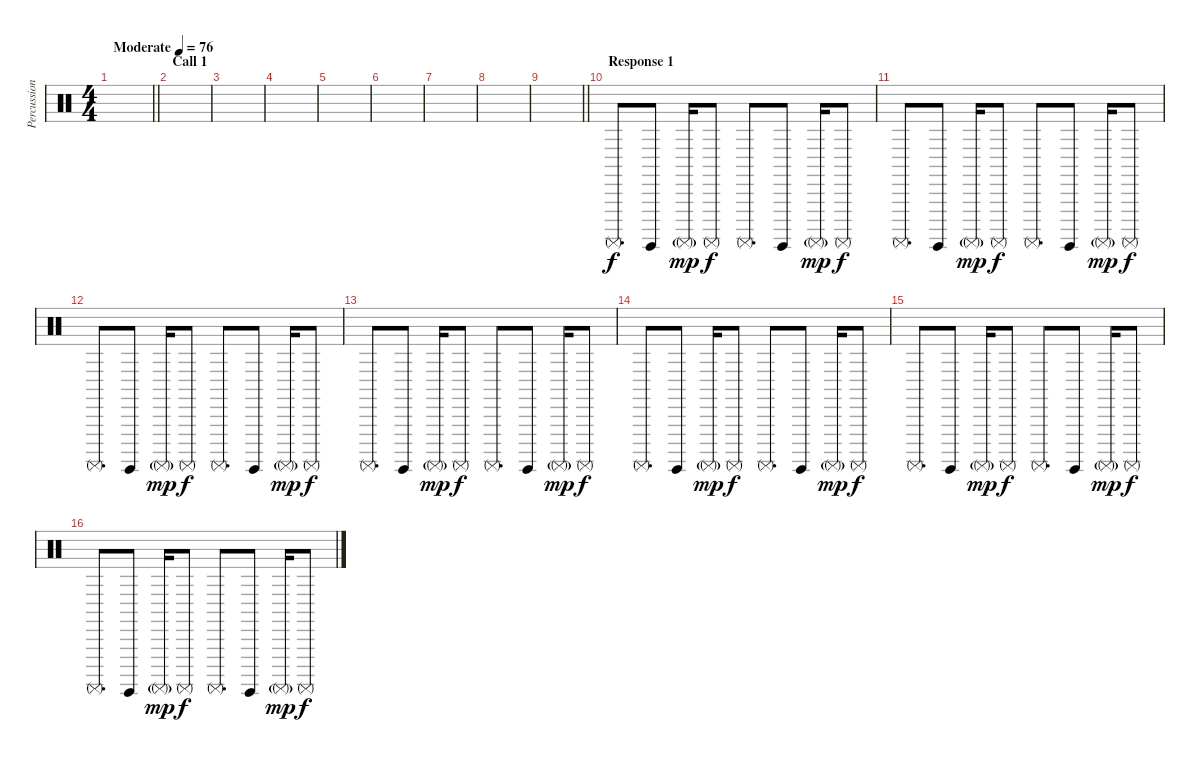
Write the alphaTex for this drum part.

\track ("Percussion" "Percussion") {instrument percussion}
\staff {score}
\articulation defaults
\ts (4 4)
\tempo (76 "Moderate")
\clef neutral
\barLineRight lightlight
\ks c
|
\section ("" "Call 1")
|
|
|
|
|
|
|
\barLineRight lightlight
|
\section ("" "Response 1")
"Surdo (mute)".8{d volume 8} "Surdo (hit)".8 "Surdo (mute)"{g}.16{dy mp} "Surdo (mute)".8{dy f} "Surdo (mute)".8{d} "Surdo (hit)".8 "Surdo (mute)"{g}.16{dy mp} "Surdo (mute)".8{dy f} |
"Surdo (mute)".8{d} "Surdo (hit)".8 "Surdo (mute)"{g}.16{dy mp} "Surdo (mute)".8{dy f} "Surdo (mute)".8{d} "Surdo (hit)".8 "Surdo (mute)"{g}.16{dy mp} "Surdo (mute)".8{dy f} |
"Surdo (mute)".8{d} "Surdo (hit)".8 "Surdo (mute)"{g}.16{dy mp} "Surdo (mute)".8{dy f} "Surdo (mute)".8{d} "Surdo (hit)".8 "Surdo (mute)"{g}.16{dy mp} "Surdo (mute)".8{dy f} |
"Surdo (mute)".8{d} "Surdo (hit)".8 "Surdo (mute)"{g}.16{dy mp} "Surdo (mute)".8{dy f} "Surdo (mute)".8{d} "Surdo (hit)".8 "Surdo (mute)"{g}.16{dy mp} "Surdo (mute)".8{dy f} |
"Surdo (mute)".8{d} "Surdo (hit)".8 "Surdo (mute)"{g}.16{dy mp} "Surdo (mute)".8{dy f} "Surdo (mute)".8{d} "Surdo (hit)".8 "Surdo (mute)"{g}.16{dy mp} "Surdo (mute)".8{dy f} |
"Surdo (mute)".8{d} "Surdo (hit)".8 "Surdo (mute)"{g}.16{dy mp} "Surdo (mute)".8{dy f} "Surdo (mute)".8{d} "Surdo (hit)".8 "Surdo (mute)"{g}.16{dy mp} "Surdo (mute)".8{dy f} |
"Surdo (mute)".8{d} "Surdo (hit)".8 "Surdo (mute)"{g}.16{dy mp} "Surdo (mute)".8{dy f} "Surdo (mute)".8{d} "Surdo (hit)".8 "Surdo (mute)"{g}.16{dy mp} "Surdo (mute)".8{dy f}
